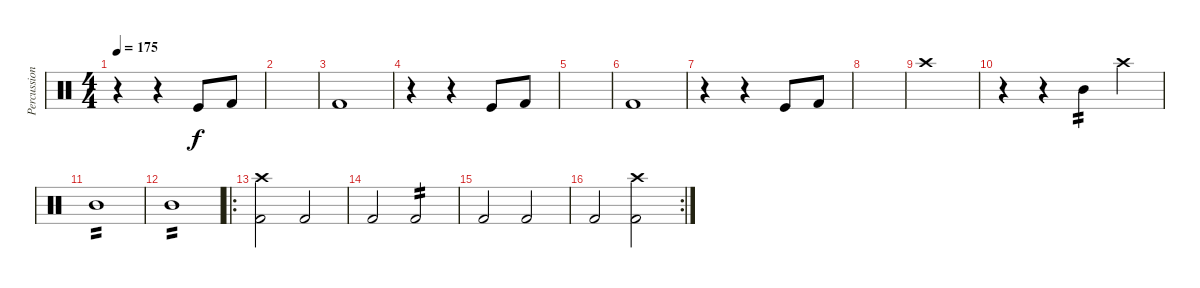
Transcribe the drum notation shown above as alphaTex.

\track ("Percussion" "Percussion") {instrument percussion}
\staff {score}
\articulation defaults
\ts (4 4)
\tempo 175
\clef neutral
\ks c
r.4{dy f} r.4 "Kick (hit)".8 "Kick (hit) 2".8 |
|
"Kick (hit) 2".1 |
r.4 r.4 "Kick (hit)".8 "Kick (hit) 2".8 |
|
"Kick (hit) 2".1 |
r.4 r.4 "Kick (hit)".8 "Kick (hit) 2".8 |
|
"Crash high (hit)".1 |
r.4 r.4 "Mid Tom (hit)".4{tp 2} "Crash high (hit)".4 |
"Mid Tom (hit)".1{tp 2} |
"Mid Tom (hit)".1{tp 2} |
\ro
("Crash high (hit)" "Kick (hit) 2").2 "Kick (hit) 2".2 |
"Kick (hit) 2".2 "Kick (hit) 2".2{tp 2} |
"Kick (hit) 2".2 "Kick (hit) 2".2 |
\rc 2 "Kick (hit) 2".2
("Crash high (hit)" "Kick (hit) 2").2
